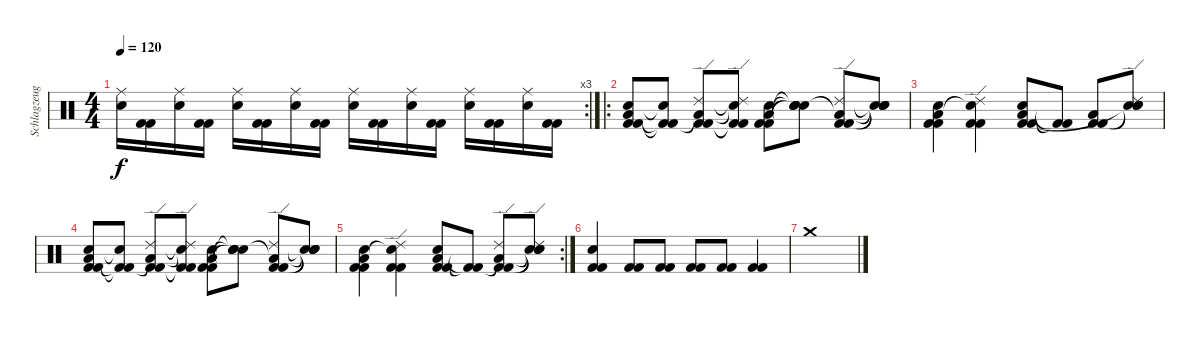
\track ("Schlagzeug" "Schlagzeug") {instrument percussion}
\staff {score}
\articulation defaults
\rc 3
\ts (4 4)
\tempo 120
\clef neutral
\ks c
("Ride (middle)" "Snare (hit) 2").16{dy f} ("Kick (hit) 2" "Kick (hit) 2").16 ("Ride (middle)" "Snare (hit) 2").16 ("Kick (hit) 2" "Kick (hit) 2").16 ("Ride (middle)" "Snare (hit) 2").16 ("Kick (hit) 2" "Kick (hit) 2").16 ("Ride (middle)" "Snare (hit) 2").16 ("Kick (hit) 2" "Kick (hit) 2").16 ("Ride (middle)" "Snare (hit) 2").16 ("Kick (hit) 2" "Kick (hit) 2").16 ("Ride (middle)" "Snare (hit) 2").16 ("Kick (hit) 2" "Kick (hit) 2").16 ("Ride (middle)" "Snare (hit) 2").16 ("Kick (hit) 2" "Kick (hit) 2").16 ("Ride (middle)" "Snare (hit) 2").16 ("Kick (hit) 2" "Kick (hit) 2").16 |
\ro
("Snare (hit) 2" "Low Floor Tom (hit)" "Kick (hit) 2" "Kick (hit) 2").8 ("Snare (hit)"{t} "Kick (hit) 2"{t} "Kick (hit) 2"{t}).8 ("Ride (edge) 2" "Low Floor Tom (hit)"{t} "Kick (hit) 2" "Kick (hit) 2").8 ("Ride (edge) 2"{t} "Snare (hit)"{t} "Kick (hit) 2"{t} "Kick (hit) 2"{t}).8 ("Snare (hit) 2" "Low Floor Tom (hit)" "Kick (hit) 2" "Kick (hit) 2").8 ("Snare (hit)"{t} "Snare (hit)"{t} "Snare (hit)"{t} "Snare (hit)"{t}).8 ("Ride (edge) 2" "Low Floor Tom (hit)"{t} "Kick (hit) 2" "Kick (hit) 2").8 ("Snare (hit)"{t} "Snare (hit)"{t} "Snare (hit)"{t} "Snare (hit)"{t}).8 |
("Snare (hit) 2" "Low Floor Tom (hit)" "Kick (hit) 2" "Kick (hit) 2").4 ("Ride (edge) 2" "Snare (hit)"{t} "Kick (hit) 2" "Kick (hit) 2").4 ("Snare (hit) 2" "Low Floor Tom (hit)" "Kick (hit) 2" "Kick (hit) 2").8 ("Kick (hit) 2"{t} "Kick (hit) 2"{t}).8 ("Low Floor Tom (hit)" "Kick (hit) 2" "Kick (hit) 2").8 ("Ride (edge) 2" "Snare (hit)"{t} "Snare (hit)"{t} "Snare (hit)"{t}).8 |
("Snare (hit) 2" "Low Floor Tom (hit)" "Kick (hit) 2" "Kick (hit) 2").8 ("Snare (hit)"{t} "Kick (hit) 2"{t} "Kick (hit) 2"{t}).8 ("Ride (edge) 2" "Low Floor Tom (hit)"{t} "Kick (hit) 2" "Kick (hit) 2").8 ("Ride (edge) 2"{t} "Snare (hit)"{t} "Kick (hit) 2"{t} "Kick (hit) 2"{t}).8 ("Snare (hit) 2" "Low Floor Tom (hit)" "Kick (hit) 2" "Kick (hit) 2").8 ("Snare (hit)"{t} "Snare (hit)"{t} "Snare (hit)"{t} "Snare (hit)"{t}).8 ("Ride (edge) 2" "Low Floor Tom (hit)"{t} "Kick (hit) 2" "Kick (hit) 2").8 ("Snare (hit)"{t} "Snare (hit)"{t} "Snare (hit)"{t} "Snare (hit)"{t}).8 |
\rc 2
("Snare (hit) 2" "Low Floor Tom (hit)" "Kick (hit) 2" "Kick (hit) 2").4 ("Ride (edge) 2" "Snare (hit)"{t} "Kick (hit) 2" "Kick (hit) 2").4 ("Snare (hit) 2" "Low Floor Tom (hit)" "Kick (hit) 2" "Kick (hit) 2").8 ("Kick (hit) 2"{t} "Kick (hit) 2"{t}).8 ("Ride (edge) 2" "Low Floor Tom (hit)"{t} "Kick (hit) 2" "Kick (hit) 2").8 ("Ride (edge) 2" "Snare (hit)"{t} "Snare (hit)"{t} "Snare (hit)"{t}).8 |
("Snare (hit) 2" "Kick (hit) 2" "Kick (hit) 2").4 ("Kick (hit) 2" "Kick (hit) 2").8 ("Kick (hit) 2" "Kick (hit) 2").8 ("Kick (hit) 2" "Kick (hit) 2").8 ("Kick (hit) 2" "Kick (hit) 2").8 ("Kick (hit) 2" "Kick (hit) 2").4 |
"Crash medium (hit)".1
